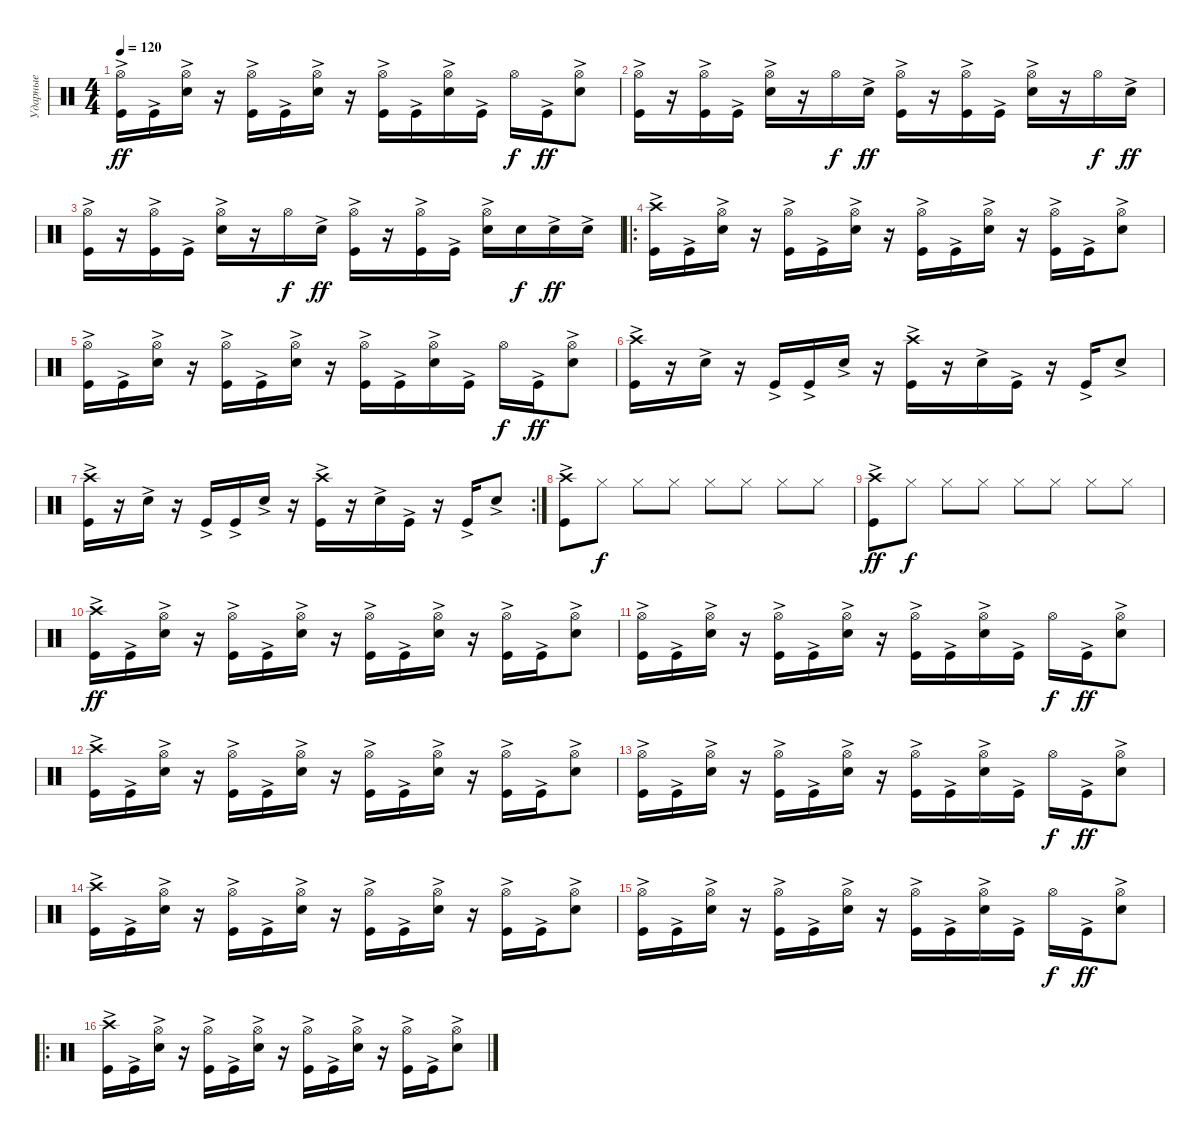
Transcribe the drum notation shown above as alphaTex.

\track ("Ударные" "Ударные") {instrument percussion}
\staff {score}
\articulation defaults
\ts (4 4)
\tempo 120
\clef neutral
\ks c
("Hi-Hat (open)" "Kick (hit)"{ac}).16{dy ff} "Kick (hit)"{ac}.16 ("Hi-Hat (open)" "Snare (hit) 2"{ac}).16 r.16 ("Hi-Hat (open)" "Kick (hit)"{ac}).16 "Kick (hit)"{ac}.16 ("Hi-Hat (open)" "Snare (hit) 2"{ac}).16 r.16 ("Hi-Hat (open)" "Kick (hit)"{ac}).16 "Kick (hit)"{ac}.16 ("Hi-Hat (open)" "Snare (hit) 2"{ac}).16 "Kick (hit)"{ac}.16 "Hi-Hat (open)".16{dy f} "Kick (hit)"{ac}.16{dy ff} ("Hi-Hat (open)" "Snare (hit) 2"{ac}).8 |
("Hi-Hat (open)" "Kick (hit)"{ac}).16 r.16 ("Hi-Hat (open)" "Kick (hit)"{ac}).16 "Kick (hit)"{ac}.16 ("Hi-Hat (open)" "Snare (hit) 2"{ac}).16 r.16 "Hi-Hat (open)".16{dy f} "Snare (hit) 2"{ac}.16{dy ff} ("Hi-Hat (open)" "Kick (hit)"{ac}).16 r.16 ("Hi-Hat (open)" "Kick (hit)"{ac}).16 "Kick (hit)"{ac}.16 ("Hi-Hat (open)" "Snare (hit) 2"{ac}).16 r.16 "Hi-Hat (open)".16{dy f} "Snare (hit) 2"{ac}.16{dy ff} |
("Hi-Hat (open)" "Kick (hit)"{ac}).16 r.16 ("Hi-Hat (open)" "Kick (hit)"{ac}).16 "Kick (hit)"{ac}.16 ("Hi-Hat (open)" "Snare (hit) 2"{ac}).16 r.16 "Hi-Hat (open)".16{dy f} "Snare (hit) 2"{ac}.16{dy ff} ("Hi-Hat (open)" "Kick (hit)"{ac}).16 r.16 ("Hi-Hat (open)" "Kick (hit)"{ac}).16 "Kick (hit)"{ac}.16 ("Hi-Hat (open)" "Snare (hit) 2"{ac}).16 "Snare (hit) 2".16{dy f} "Snare (hit) 2"{ac}.16{dy ff} "Snare (hit) 2"{ac}.16 |
\ro
("Crash high (hit)" "Kick (hit)"{ac}).16 "Kick (hit)"{ac}.16 ("Hi-Hat (open)" "Snare (hit) 2"{ac}).16 r.16 ("Hi-Hat (open)" "Kick (hit)"{ac}).16 "Kick (hit)"{ac}.16 ("Hi-Hat (open)" "Snare (hit) 2"{ac}).16 r.16 ("Hi-Hat (open)" "Kick (hit)"{ac}).16 "Kick (hit)"{ac}.16 ("Hi-Hat (open)" "Snare (hit) 2"{ac}).16 r.16 ("Hi-Hat (open)" "Kick (hit)"{ac}).16 "Kick (hit)"{ac}.16 ("Hi-Hat (open)" "Snare (hit) 2"{ac}).8 |
("Hi-Hat (open)" "Kick (hit)"{ac}).16 "Kick (hit)"{ac}.16 ("Hi-Hat (open)" "Snare (hit) 2"{ac}).16 r.16 ("Hi-Hat (open)" "Kick (hit)"{ac}).16 "Kick (hit)"{ac}.16 ("Hi-Hat (open)" "Snare (hit) 2"{ac}).16 r.16 ("Hi-Hat (open)" "Kick (hit)"{ac}).16 "Kick (hit)"{ac}.16 ("Hi-Hat (open)" "Snare (hit) 2"{ac}).16 "Kick (hit)"{ac}.16 "Hi-Hat (open)".16{dy f} "Kick (hit)"{ac}.16{dy ff} ("Hi-Hat (open)" "Snare (hit) 2"{ac}).8 |
("Crash high (hit)" "Kick (hit)"{ac}).16 r.16 "Snare (hit) 2"{ac}.16 r.16 "Kick (hit)"{ac}.16 "Kick (hit)"{ac}.16 "Snare (hit) 2"{ac}.16 r.16 ("Crash high (hit)" "Kick (hit)"{ac}).16 r.16 "Snare (hit) 2"{ac}.16 "Kick (hit)"{ac}.16 r.16 "Kick (hit)"{ac}.16 "Snare (hit) 2"{ac}.8 |
\rc 2
("Crash high (hit)" "Kick (hit)"{ac}).16 r.16 "Snare (hit) 2"{ac}.16 r.16 "Kick (hit)"{ac}.16 "Kick (hit)"{ac}.16 "Snare (hit) 2"{ac}.16 r.16 ("Crash high (hit)" "Kick (hit)"{ac}).16 r.16 "Snare (hit) 2"{ac}.16 "Kick (hit)"{ac}.16 r.16 "Kick (hit)"{ac}.16 "Snare (hit) 2"{ac}.8 |
("Kick (hit)"{ac} "Crash high (hit)").8 "Hi-Hat (closed)".8{dy f} "Hi-Hat (closed)".8 "Hi-Hat (closed)".8 "Hi-Hat (closed)".8 "Hi-Hat (closed)".8 "Hi-Hat (closed)".8 "Hi-Hat (closed)".8 |
("Kick (hit)"{ac} "Crash high (hit)").8{dy ff} "Hi-Hat (closed)".8{dy f} "Hi-Hat (closed)".8 "Hi-Hat (closed)".8 "Hi-Hat (closed)".8 "Hi-Hat (closed)".8 "Hi-Hat (closed)".8 "Hi-Hat (closed)".8 |
("Crash high (hit)" "Kick (hit)"{ac}).16{dy ff} "Kick (hit)"{ac}.16 ("Hi-Hat (open)" "Snare (hit) 2"{ac}).16 r.16 ("Hi-Hat (open)" "Kick (hit)"{ac}).16 "Kick (hit)"{ac}.16 ("Hi-Hat (open)" "Snare (hit) 2"{ac}).16 r.16 ("Hi-Hat (open)" "Kick (hit)"{ac}).16 "Kick (hit)"{ac}.16 ("Hi-Hat (open)" "Snare (hit) 2"{ac}).16 r.16 ("Hi-Hat (open)" "Kick (hit)"{ac}).16 "Kick (hit)"{ac}.16 ("Hi-Hat (open)" "Snare (hit) 2"{ac}).8 |
("Hi-Hat (open)" "Kick (hit)"{ac}).16 "Kick (hit)"{ac}.16 ("Hi-Hat (open)" "Snare (hit) 2"{ac}).16 r.16 ("Hi-Hat (open)" "Kick (hit)"{ac}).16 "Kick (hit)"{ac}.16 ("Hi-Hat (open)" "Snare (hit) 2"{ac}).16 r.16 ("Hi-Hat (open)" "Kick (hit)"{ac}).16 "Kick (hit)"{ac}.16 ("Hi-Hat (open)" "Snare (hit) 2"{ac}).16 "Kick (hit)"{ac}.16 "Hi-Hat (open)".16{dy f} "Kick (hit)"{ac}.16{dy ff} ("Hi-Hat (open)" "Snare (hit) 2"{ac}).8 |
("Crash high (hit)" "Kick (hit)"{ac}).16 "Kick (hit)"{ac}.16 ("Hi-Hat (open)" "Snare (hit) 2"{ac}).16 r.16 ("Hi-Hat (open)" "Kick (hit)"{ac}).16 "Kick (hit)"{ac}.16 ("Hi-Hat (open)" "Snare (hit) 2"{ac}).16 r.16 ("Hi-Hat (open)" "Kick (hit)"{ac}).16 "Kick (hit)"{ac}.16 ("Hi-Hat (open)" "Snare (hit) 2"{ac}).16 r.16 ("Hi-Hat (open)" "Kick (hit)"{ac}).16 "Kick (hit)"{ac}.16 ("Hi-Hat (open)" "Snare (hit) 2"{ac}).8 |
("Hi-Hat (open)" "Kick (hit)"{ac}).16 "Kick (hit)"{ac}.16 ("Hi-Hat (open)" "Snare (hit) 2"{ac}).16 r.16 ("Hi-Hat (open)" "Kick (hit)"{ac}).16 "Kick (hit)"{ac}.16 ("Hi-Hat (open)" "Snare (hit) 2"{ac}).16 r.16 ("Hi-Hat (open)" "Kick (hit)"{ac}).16 "Kick (hit)"{ac}.16 ("Hi-Hat (open)" "Snare (hit) 2"{ac}).16 "Kick (hit)"{ac}.16 "Hi-Hat (open)".16{dy f} "Kick (hit)"{ac}.16{dy ff} ("Hi-Hat (open)" "Snare (hit) 2"{ac}).8 |
("Crash high (hit)" "Kick (hit)"{ac}).16 "Kick (hit)"{ac}.16 ("Hi-Hat (open)" "Snare (hit) 2"{ac}).16 r.16 ("Hi-Hat (open)" "Kick (hit)"{ac}).16 "Kick (hit)"{ac}.16 ("Hi-Hat (open)" "Snare (hit) 2"{ac}).16 r.16 ("Hi-Hat (open)" "Kick (hit)"{ac}).16 "Kick (hit)"{ac}.16 ("Hi-Hat (open)" "Snare (hit) 2"{ac}).16 r.16 ("Hi-Hat (open)" "Kick (hit)"{ac}).16 "Kick (hit)"{ac}.16 ("Hi-Hat (open)" "Snare (hit) 2"{ac}).8 |
("Hi-Hat (open)" "Kick (hit)"{ac}).16 "Kick (hit)"{ac}.16 ("Hi-Hat (open)" "Snare (hit) 2"{ac}).16 r.16 ("Hi-Hat (open)" "Kick (hit)"{ac}).16 "Kick (hit)"{ac}.16 ("Hi-Hat (open)" "Snare (hit) 2"{ac}).16 r.16 ("Hi-Hat (open)" "Kick (hit)"{ac}).16 "Kick (hit)"{ac}.16 ("Hi-Hat (open)" "Snare (hit) 2"{ac}).16 "Kick (hit)"{ac}.16 "Hi-Hat (open)".16{dy f} "Kick (hit)"{ac}.16{dy ff} ("Hi-Hat (open)" "Snare (hit) 2"{ac}).8 |
\ro
("Crash high (hit)" "Kick (hit)"{ac}).16 "Kick (hit)"{ac}.16 ("Hi-Hat (open)" "Snare (hit) 2"{ac}).16 r.16 ("Hi-Hat (open)" "Kick (hit)"{ac}).16 "Kick (hit)"{ac}.16 ("Hi-Hat (open)" "Snare (hit) 2"{ac}).16 r.16 ("Hi-Hat (open)" "Kick (hit)"{ac}).16 "Kick (hit)"{ac}.16 ("Hi-Hat (open)" "Snare (hit) 2"{ac}).16 r.16 ("Hi-Hat (open)" "Kick (hit)"{ac}).16 "Kick (hit)"{ac}.16 ("Hi-Hat (open)" "Snare (hit) 2"{ac}).8
